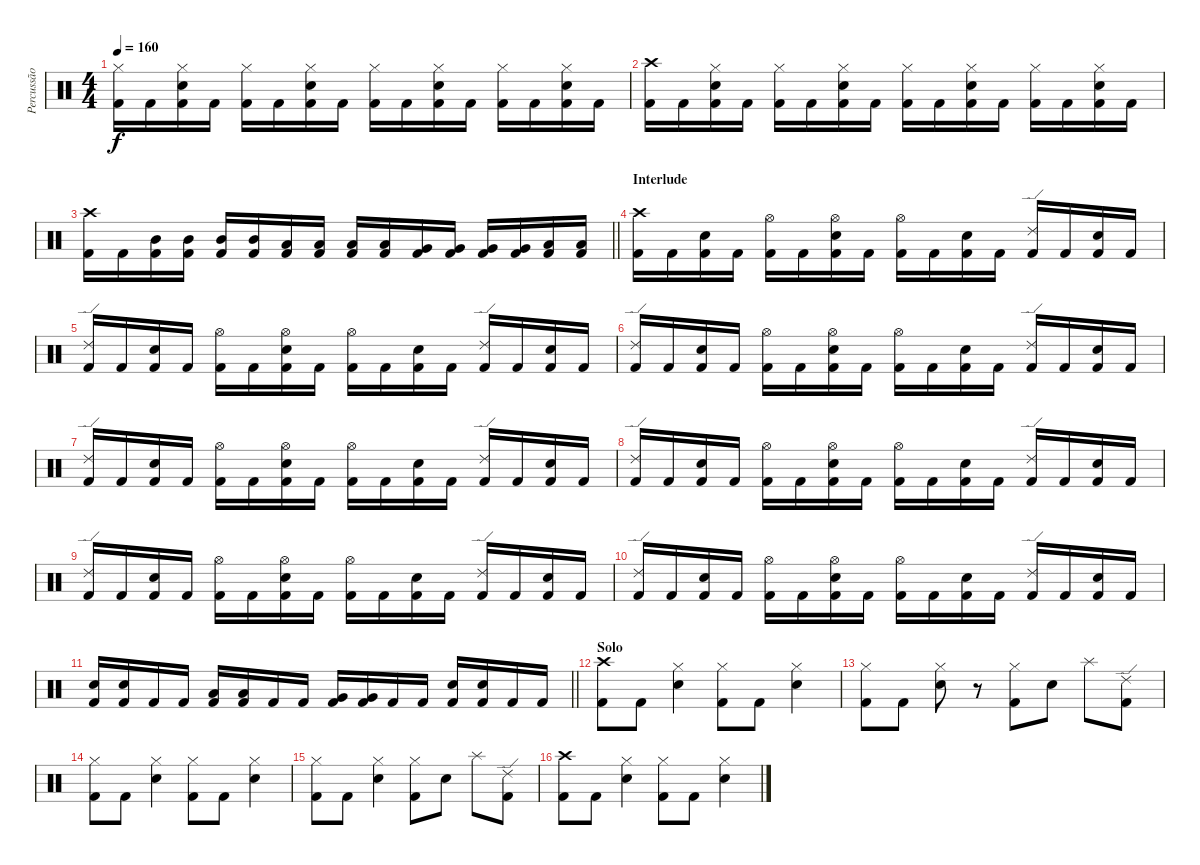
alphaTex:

\track ("Percussão" "Percussão") {instrument percussion}
\staff {score}
\articulation defaults
\ts (4 4)
\tempo 160
\clef neutral
\ks c
("Hi-Hat (closed)" "Kick (hit) 2").16{dy f} "Kick (hit) 2".16 ("Hi-Hat (closed)" "Electric Snare (hit)" "Kick (hit) 2").16 "Kick (hit) 2".16 ("Hi-Hat (closed)" "Kick (hit) 2").16 "Kick (hit) 2".16 ("Hi-Hat (closed)" "Electric Snare (hit)" "Kick (hit) 2").16 "Kick (hit) 2".16 ("Hi-Hat (closed)" "Kick (hit) 2").16 "Kick (hit) 2".16 ("Hi-Hat (closed)" "Electric Snare (hit)" "Kick (hit) 2").16 "Kick (hit) 2".16 ("Hi-Hat (closed)" "Kick (hit) 2").16 "Kick (hit) 2".16 ("Hi-Hat (closed)" "Electric Snare (hit)" "Kick (hit) 2").16 "Kick (hit) 2".16 |
("Crash high (hit)" "Kick (hit) 2").16 "Kick (hit) 2".16 ("Hi-Hat (closed)" "Electric Snare (hit)" "Kick (hit) 2").16 "Kick (hit) 2".16 ("Hi-Hat (closed)" "Kick (hit) 2").16 "Kick (hit) 2".16 ("Hi-Hat (closed)" "Electric Snare (hit)" "Kick (hit) 2").16 "Kick (hit) 2".16 ("Hi-Hat (closed)" "Kick (hit) 2").16 "Kick (hit) 2".16 ("Hi-Hat (closed)" "Electric Snare (hit)" "Kick (hit) 2").16 "Kick (hit) 2".16 ("Hi-Hat (closed)" "Kick (hit) 2").16 "Kick (hit) 2".16 ("Hi-Hat (closed)" "Electric Snare (hit)" "Kick (hit) 2").16 "Kick (hit) 2".16 |
\barLineRight lightlight
("Crash high (hit)" "Kick (hit) 2").16 "Kick (hit) 2".16 ("Mid Tom (hit)" "Kick (hit) 2").16 ("Mid Tom (hit)" "Kick (hit) 2").16 ("Mid Tom (hit)" "Kick (hit) 2").16 ("Mid Tom (hit)" "Kick (hit) 2").16 ("Low Tom (hit)" "Kick (hit) 2").16 ("Low Tom (hit)" "Kick (hit) 2").16 ("Low Tom (hit)" "Kick (hit) 2").16 ("Low Tom (hit)" "Kick (hit) 2").16 ("Very Low Tom (hit)" "Kick (hit) 2").16 ("Very Low Tom (hit)" "Kick (hit) 2").16 ("Very Low Tom (hit)" "Kick (hit) 2").16 ("Very Low Tom (hit)" "Kick (hit) 2").16 ("Low Floor Tom (hit)" "Kick (hit) 2").16 ("Low Floor Tom (hit)" "Kick (hit) 2").16 |
\section ("" "Interlude")
("Crash high (hit)" "Kick (hit) 2").16 "Kick (hit) 2".16 ("Electric Snare (hit)" "Kick (hit) 2").16 "Kick (hit) 2".16 ("Hi-Hat (open)" "Kick (hit) 2").16 "Kick (hit) 2".16 ("Hi-Hat (open)" "Electric Snare (hit)" "Kick (hit) 2").16 "Kick (hit) 2".16 ("Hi-Hat (open)" "Kick (hit) 2").16 "Kick (hit) 2".16 ("Electric Snare (hit)" "Kick (hit) 2").16 "Kick (hit) 2".16 ("Ride (edge) 2" "Kick (hit) 2").16 "Kick (hit) 2".16 ("Electric Snare (hit)" "Kick (hit) 2").16 "Kick (hit) 2".16 |
("Ride (edge) 2" "Kick (hit) 2").16 "Kick (hit) 2".16 ("Electric Snare (hit)" "Kick (hit) 2").16 "Kick (hit) 2".16 ("Hi-Hat (open)" "Kick (hit) 2").16 "Kick (hit) 2".16 ("Hi-Hat (open)" "Electric Snare (hit)" "Kick (hit) 2").16 "Kick (hit) 2".16 ("Hi-Hat (open)" "Kick (hit) 2").16 "Kick (hit) 2".16 ("Electric Snare (hit)" "Kick (hit) 2").16 "Kick (hit) 2".16 ("Ride (edge) 2" "Kick (hit) 2").16 "Kick (hit) 2".16 ("Electric Snare (hit)" "Kick (hit) 2").16 "Kick (hit) 2".16 |
("Ride (edge) 2" "Kick (hit) 2").16 "Kick (hit) 2".16 ("Electric Snare (hit)" "Kick (hit) 2").16 "Kick (hit) 2".16 ("Hi-Hat (open)" "Kick (hit) 2").16 "Kick (hit) 2".16 ("Hi-Hat (open)" "Electric Snare (hit)" "Kick (hit) 2").16 "Kick (hit) 2".16 ("Hi-Hat (open)" "Kick (hit) 2").16 "Kick (hit) 2".16 ("Electric Snare (hit)" "Kick (hit) 2").16 "Kick (hit) 2".16 ("Ride (edge) 2" "Kick (hit) 2").16 "Kick (hit) 2".16 ("Electric Snare (hit)" "Kick (hit) 2").16 "Kick (hit) 2".16 |
("Ride (edge) 2" "Kick (hit) 2").16 "Kick (hit) 2".16 ("Electric Snare (hit)" "Kick (hit) 2").16 "Kick (hit) 2".16 ("Hi-Hat (open)" "Kick (hit) 2").16 "Kick (hit) 2".16 ("Hi-Hat (open)" "Electric Snare (hit)" "Kick (hit) 2").16 "Kick (hit) 2".16 ("Hi-Hat (open)" "Kick (hit) 2").16 "Kick (hit) 2".16 ("Electric Snare (hit)" "Kick (hit) 2").16 "Kick (hit) 2".16 ("Ride (edge) 2" "Kick (hit) 2").16 "Kick (hit) 2".16 ("Electric Snare (hit)" "Kick (hit) 2").16 "Kick (hit) 2".16 |
("Ride (edge) 2" "Kick (hit) 2").16 "Kick (hit) 2".16 ("Electric Snare (hit)" "Kick (hit) 2").16 "Kick (hit) 2".16 ("Hi-Hat (open)" "Kick (hit) 2").16 "Kick (hit) 2".16 ("Hi-Hat (open)" "Electric Snare (hit)" "Kick (hit) 2").16 "Kick (hit) 2".16 ("Hi-Hat (open)" "Kick (hit) 2").16 "Kick (hit) 2".16 ("Electric Snare (hit)" "Kick (hit) 2").16 "Kick (hit) 2".16 ("Ride (edge) 2" "Kick (hit) 2").16 "Kick (hit) 2".16 ("Electric Snare (hit)" "Kick (hit) 2").16 "Kick (hit) 2".16 |
("Ride (edge) 2" "Kick (hit) 2").16 "Kick (hit) 2".16 ("Electric Snare (hit)" "Kick (hit) 2").16 "Kick (hit) 2".16 ("Hi-Hat (open)" "Kick (hit) 2").16 "Kick (hit) 2".16 ("Hi-Hat (open)" "Electric Snare (hit)" "Kick (hit) 2").16 "Kick (hit) 2".16 ("Hi-Hat (open)" "Kick (hit) 2").16 "Kick (hit) 2".16 ("Electric Snare (hit)" "Kick (hit) 2").16 "Kick (hit) 2".16 ("Ride (edge) 2" "Kick (hit) 2").16 "Kick (hit) 2".16 ("Electric Snare (hit)" "Kick (hit) 2").16 "Kick (hit) 2".16 |
("Ride (edge) 2" "Kick (hit) 2").16 "Kick (hit) 2".16 ("Electric Snare (hit)" "Kick (hit) 2").16 "Kick (hit) 2".16 ("Hi-Hat (open)" "Kick (hit) 2").16 "Kick (hit) 2".16 ("Hi-Hat (open)" "Electric Snare (hit)" "Kick (hit) 2").16 "Kick (hit) 2".16 ("Hi-Hat (open)" "Kick (hit) 2").16 "Kick (hit) 2".16 ("Electric Snare (hit)" "Kick (hit) 2").16 "Kick (hit) 2".16 ("Ride (edge) 2" "Kick (hit) 2").16 "Kick (hit) 2".16 ("Electric Snare (hit)" "Kick (hit) 2").16 "Kick (hit) 2".16 |
\barLineRight lightlight
("Electric Snare (hit)" "Kick (hit) 2").16 ("Electric Snare (hit)" "Kick (hit) 2").16 "Kick (hit) 2".16 "Kick (hit) 2".16 ("Low Tom (hit)" "Kick (hit) 2").16 ("Low Tom (hit)" "Kick (hit) 2").16 "Kick (hit) 2".16 "Kick (hit) 2".16 ("Very Low Tom (hit)" "Kick (hit) 2").16 ("Very Low Tom (hit)" "Kick (hit) 2").16 "Kick (hit) 2".16 "Kick (hit) 2".16 ("Electric Snare (hit)" "Kick (hit) 2").16 ("Electric Snare (hit)" "Kick (hit) 2").16 "Kick (hit) 2".16 "Kick (hit) 2".16 |
\section ("" "Solo")
("Crash high (hit)" "Kick (hit) 2").8 "Kick (hit) 2".8 ("Hi-Hat (closed)" "Electric Snare (hit)").4 ("Hi-Hat (closed)" "Kick (hit) 2").8 "Kick (hit) 2".8 ("Hi-Hat (closed)" "Electric Snare (hit)").4 |
("Hi-Hat (closed)" "Kick (hit) 2").8 "Kick (hit) 2".8 ("Hi-Hat (closed)" "Electric Snare (hit)").8 r.8 ("Hi-Hat (closed)" "Kick (hit) 2").8 "Electric Snare (hit)".8 "Splash (hit)".8 ("Ride (edge) 2" "Kick (hit) 2").8 |
("Hi-Hat (closed)" "Kick (hit) 2").8 "Kick (hit) 2".8 ("Hi-Hat (closed)" "Electric Snare (hit)").4 ("Hi-Hat (closed)" "Kick (hit) 2").8 "Kick (hit) 2".8 ("Hi-Hat (closed)" "Electric Snare (hit)").4 |
("Hi-Hat (closed)" "Kick (hit) 2").8 "Kick (hit) 2".8 ("Hi-Hat (closed)" "Electric Snare (hit)").4 ("Hi-Hat (closed)" "Kick (hit) 2").8 "Electric Snare (hit)".8 "Splash (hit)".8 ("Ride (edge) 2" "Kick (hit) 2").8 |
("Crash high (hit)" "Kick (hit) 2").8 "Kick (hit) 2".8 ("Hi-Hat (closed)" "Electric Snare (hit)").4 ("Hi-Hat (closed)" "Kick (hit) 2").8 "Kick (hit) 2".8 ("Hi-Hat (closed)" "Electric Snare (hit)").4
